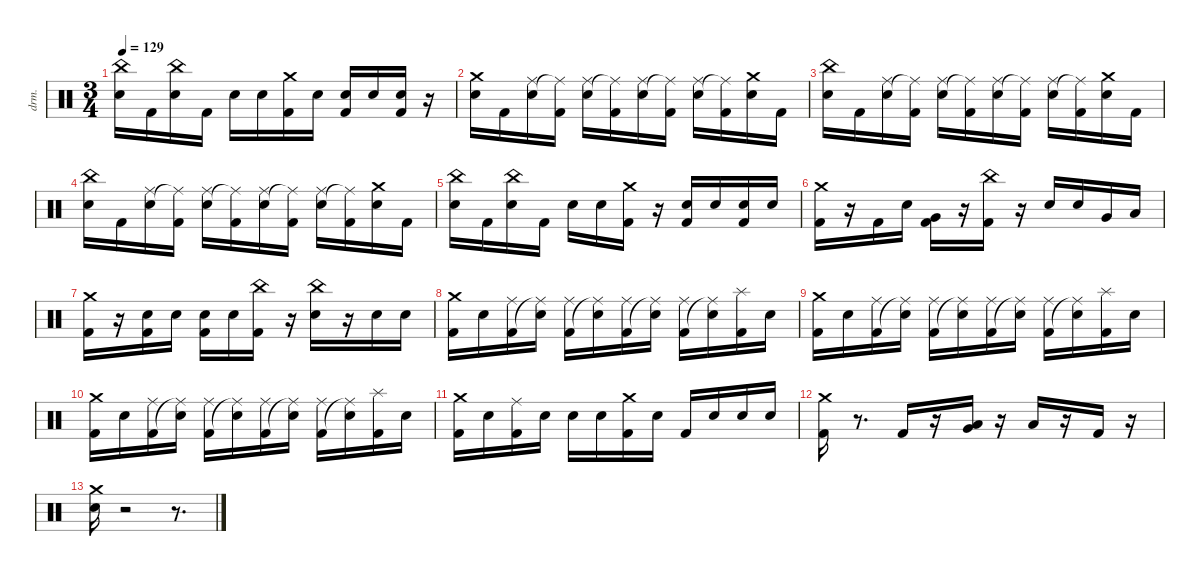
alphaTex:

\defaultSystemsLayout 4
\hideDynamics
\bracketExtendMode nobrackets
\otherSystemsTrackNameOrientation horizontal
\track ("Drumkit" "drm.") {instrument percussion}
\staff {score}
\articulation defaults
\ts (3 4)
\tempo 129
\clef neutral
\ks c
("Snare (hit) 2" "China (hit)").16{dy fff} "Kick (hit) 2".16 ("Snare (hit) 2" "China (hit)").16 "Kick (hit) 2".16 "Snare (hit) 2".16 "Snare (hit) 2".16 ("Kick (hit) 2" "Crash medium (hit)").16 "Snare (hit) 2".16 ("Kick (hit) 2" "Snare (hit) 2").16 "Snare (hit) 2".16 ("Kick (hit) 2" "Snare (hit) 2").16 r.16 |
("Snare (hit) 2" "Crash medium (hit)").16 "Kick (hit) 2".16 ("Snare (hit) 2" "Ride (middle)"{acc #}).16 ("Ride (middle)"{t acc #} "Kick (hit) 2").16 ("Snare (hit) 2" "Ride (middle)"{acc #}).16 ("Ride (middle)"{t acc #} "Kick (hit) 2").16 ("Snare (hit) 2" "Ride (middle)"{acc #}).16 ("Ride (middle)"{t acc #} "Kick (hit) 2").16 ("Snare (hit) 2" "Ride (middle)"{acc #}).16 ("Ride (middle)"{t acc #} "Kick (hit) 2").16 ("Snare (hit) 2" "Crash medium (hit)").16 "Kick (hit) 2".16 |
("Snare (hit) 2" "China (hit)").16 "Kick (hit) 2".16 ("Snare (hit) 2" "Ride (middle)"{acc #}).16 ("Ride (middle)"{t acc #} "Kick (hit) 2").16 ("Snare (hit) 2" "Ride (middle)"{acc #}).16 ("Ride (middle)"{t acc #} "Kick (hit) 2").16 ("Snare (hit) 2" "Ride (middle)"{acc #}).16 ("Ride (middle)"{t acc #} "Kick (hit) 2").16 ("Snare (hit) 2" "Ride (middle)"{acc #}).16 ("Ride (middle)"{t acc #} "Kick (hit) 2").16 ("Snare (hit) 2" "Crash medium (hit)").16 "Kick (hit) 2".16 |
("Snare (hit) 2" "China (hit)").16 "Kick (hit) 2".16 ("Snare (hit) 2" "Ride (middle)"{acc #}).16 ("Ride (middle)"{t acc #} "Kick (hit) 2").16 ("Snare (hit) 2" "Ride (middle)"{acc #}).16 ("Ride (middle)"{t acc #} "Kick (hit) 2").16 ("Snare (hit) 2" "Ride (middle)"{acc #}).16 ("Ride (middle)"{t acc #} "Kick (hit) 2").16 ("Snare (hit) 2" "Ride (middle)"{acc #}).16 ("Ride (middle)"{t acc #} "Kick (hit) 2").16 ("Snare (hit) 2" "Crash medium (hit)").16 "Kick (hit) 2".16 |
("Snare (hit) 2" "China (hit)").16 "Kick (hit) 2".16 ("Snare (hit) 2" "China (hit)").16 "Kick (hit) 2".16 "Snare (hit) 2".16 "Snare (hit) 2".16 ("Kick (hit) 2" "Crash medium (hit)").16 r.16 ("Kick (hit) 2" "Snare (hit) 2").16 "Snare (hit) 2".16 ("Kick (hit) 2" "Snare (hit) 2").16 "Snare (hit) 2".16 |
("Kick (hit) 2" "Crash medium (hit)").16 r.16 "Kick (hit) 2".16 "Snare (hit) 2".16 ("Kick (hit) 2" "Very Low Tom (hit)").16 r.16 ("Kick (hit) 2" "China (hit)").16 r.16 "Snare (hit) 2".16 "Snare (hit) 2".16 "Very Low Tom (hit)".16 "Low Floor Tom (hit)".16 |
("Kick (hit) 2" "Crash medium (hit)").16 r.16 ("Kick (hit) 2" "Snare (hit) 2").16 "Snare (hit) 2".16 ("Kick (hit) 2" "Snare (hit) 2").16 "Snare (hit) 2".16 ("Kick (hit) 2" "China (hit)").16 r.16 ("Snare (hit) 2" "China (hit)").16 r.16 "Snare (hit) 2".16 "Snare (hit) 2".16 |
("Kick (hit) 2" "Crash medium (hit)").16 "Snare (hit) 2".16 ("Kick (hit) 2" "Ride (middle)"{acc #}).16 ("Ride (middle)"{t acc #} "Snare (hit) 2").16 ("Kick (hit) 2" "Ride (middle)"{acc #}).16 ("Ride (middle)"{t acc #} "Snare (hit) 2").16 ("Kick (hit) 2" "Ride (middle)"{acc #}).16 ("Ride (middle)"{t acc #} "Snare (hit) 2").16 ("Kick (hit) 2" "Ride (middle)"{acc #}).16 ("Ride (middle)"{t acc #} "Snare (hit) 2").16 ("Kick (hit) 2" "Splash (hit)").16 "Snare (hit) 2".16 |
("Kick (hit) 2" "Crash medium (hit)").16 "Snare (hit) 2".16 ("Kick (hit) 2" "Ride (middle)"{acc #}).16 ("Ride (middle)"{t acc #} "Snare (hit) 2").16 ("Kick (hit) 2" "Ride (middle)"{acc #}).16 ("Ride (middle)"{t acc #} "Snare (hit) 2").16 ("Kick (hit) 2" "Ride (middle)"{acc #}).16 ("Ride (middle)"{t acc #} "Snare (hit) 2").16 ("Kick (hit) 2" "Ride (middle)"{acc #}).16 ("Ride (middle)"{t acc #} "Snare (hit) 2").16 ("Kick (hit) 2" "Splash (hit)").16 "Snare (hit) 2".16 |
("Kick (hit) 2" "Crash medium (hit)").16 "Snare (hit) 2".16 ("Kick (hit) 2" "Ride (middle)"{acc #}).16 ("Ride (middle)"{t acc #} "Snare (hit) 2").16 ("Kick (hit) 2" "Ride (middle)"{acc #}).16 ("Ride (middle)"{t acc #} "Snare (hit) 2").16 ("Kick (hit) 2" "Ride (middle)"{acc #}).16 ("Ride (middle)"{t acc #} "Snare (hit) 2").16 ("Kick (hit) 2" "Ride (middle)"{acc #}).16 ("Ride (middle)"{t acc #} "Snare (hit) 2").16 ("Kick (hit) 2" "Splash (hit)").16 "Snare (hit) 2".16 |
("Kick (hit) 2" "Crash medium (hit)").16 "Snare (hit) 2".16 ("Kick (hit) 2" "Ride (middle)"{acc #}).16 "Snare (hit) 2".16 "Snare (hit) 2".16 "Snare (hit) 2".16 ("Kick (hit) 2" "Crash medium (hit)").16 "Snare (hit) 2".16 "Kick (hit) 2".16 "Snare (hit) 2".16 "Snare (hit) 2".16 "Snare (hit) 2".16 |
("Kick (hit) 2" "Crash medium (hit)").16 r.8{d} "Kick (hit) 2".16 r.16 ("Low Floor Tom (hit)" "Very Low Tom (hit)").16 r.16 "Low Floor Tom (hit)".16 r.16 "Kick (hit) 2".16 r.16 |
("Snare (hit) 2" "Crash medium (hit)").16 r.2 r.8{d}
